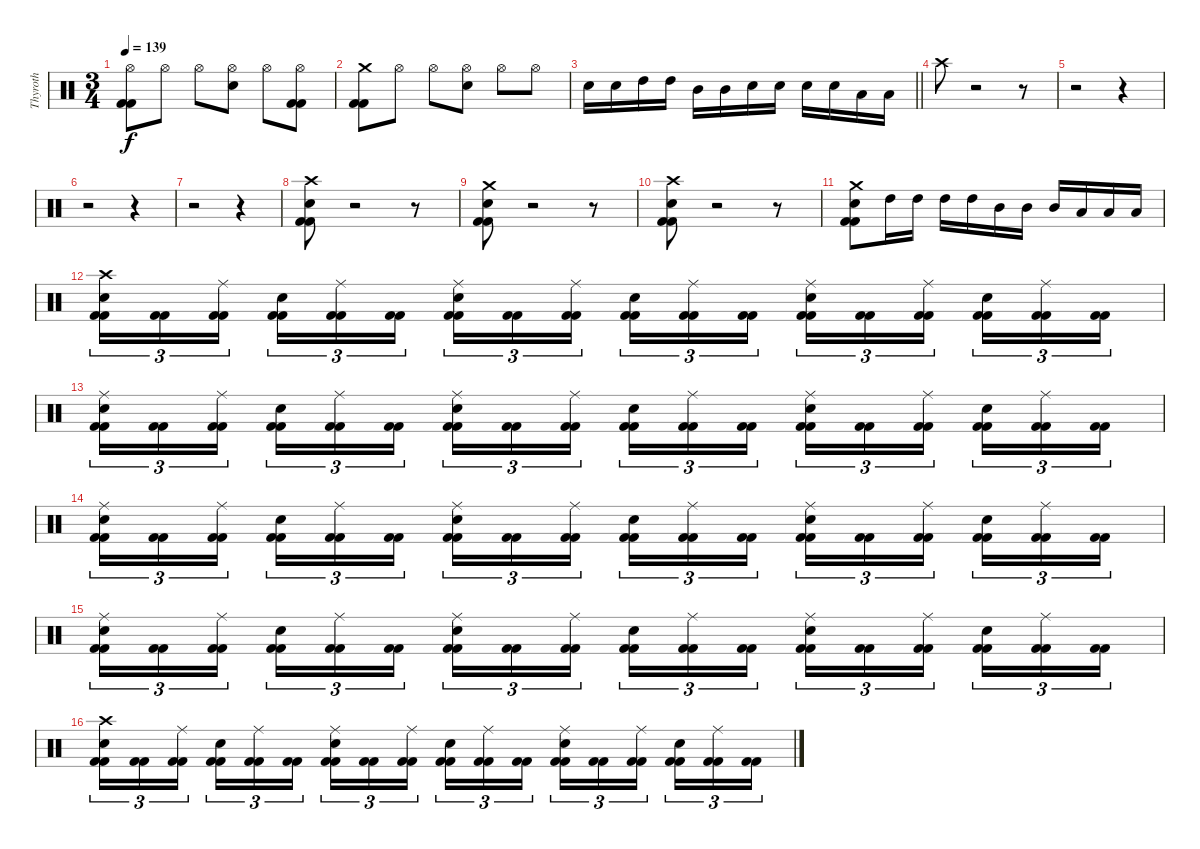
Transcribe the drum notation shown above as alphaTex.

\track ("Thyroth" "Thyroth") {instrument percussion}
\staff {score}
\articulation defaults
\ts (3 4)
\tempo 139
\clef neutral
\ks c
("Kick (hit) 2" "Kick (hit) 2" "Hi-Hat (open)").8{dy f} "Hi-Hat (open)".8 "Hi-Hat (open)".8 ("Snare (hit) 2" "Hi-Hat (open)").8 "Hi-Hat (open)".8 ("Kick (hit) 2" "Kick (hit) 2" "Hi-Hat (open)").8 |
("Kick (hit) 2" "Kick (hit) 2" "Crash medium (hit)").8 "Hi-Hat (open)".8 "Hi-Hat (open)".8 ("Snare (hit) 2" "Hi-Hat (open)").8 "Hi-Hat (open)".8 "Hi-Hat (open)".8 |
\barLineRight lightlight "Snare (hit) 2".16 "Snare (hit) 2".16 "High Tom (hit)".16 "High Tom (hit)".16 "Mid Tom (hit)".16 "Mid Tom (hit)".16 "Snare (hit) 2".16 "Snare (hit) 2".16 "Snare (hit) 2".16 "Snare (hit) 2".16 "Low Tom (hit)".16 "Low Tom (hit)".16
|
"Crash high (hit)".8 r.2 r.8 |
r.2 r.4 |
r.2 r.4 |
r.2 r.4 |
("Kick (hit) 2" "Kick (hit) 2" "Snare (hit) 2" "Crash high (hit)").8 r.2 r.8 |
("Kick (hit) 2" "Kick (hit) 2" "Snare (hit) 2" "Crash medium (hit)").8 r.2 r.8 |
("Kick (hit) 2" "Kick (hit) 2" "Snare (hit) 2" "Crash high (hit)").8 r.2 r.8 |
("Kick (hit) 2" "Kick (hit) 2" "Snare (hit) 2" "Crash medium (hit)").8 "High Tom (hit)".16 "High Tom (hit)".16 "High Tom (hit)".16 "High Tom (hit)".16 "Mid Tom (hit)".16 "Mid Tom (hit)".16 "Mid Tom (hit)".16 "Low Tom (hit)".16 "Low Tom (hit)".16 "Low Tom (hit)".16 |
("Kick (hit) 2" "Kick (hit) 2" "Snare (hit) 2" "Crash high (hit)").16{tu (3 2)} ("Kick (hit) 2" "Kick (hit) 2").16{tu (3 2)} ("Kick (hit) 2" "Kick (hit) 2" "Ride (middle)").16{tu (3 2)} ("Kick (hit) 2" "Kick (hit) 2" "Snare (hit) 2").16{tu (3 2)} ("Kick (hit) 2" "Kick (hit) 2" "Ride (middle)").16{tu (3 2)} ("Kick (hit) 2" "Kick (hit) 2").16{tu (3 2)} ("Kick (hit) 2" "Kick (hit) 2" "Snare (hit) 2" "Ride (middle)").16{tu (3 2)} ("Kick (hit) 2" "Kick (hit) 2").16{tu (3 2)} ("Kick (hit) 2" "Kick (hit) 2" "Ride (middle)").16{tu (3 2)} ("Kick (hit) 2" "Kick (hit) 2" "Snare (hit) 2").16{tu (3 2)} ("Kick (hit) 2" "Kick (hit) 2" "Ride (middle)").16{tu (3 2)} ("Kick (hit) 2" "Kick (hit) 2").16{tu (3 2)} ("Kick (hit) 2" "Kick (hit) 2" "Snare (hit) 2" "Ride (middle)").16{tu (3 2)} ("Kick (hit) 2" "Kick (hit) 2").16{tu (3 2)} ("Kick (hit) 2" "Kick (hit) 2" "Ride (middle)").16{tu (3 2)} ("Kick (hit) 2" "Kick (hit) 2" "Snare (hit) 2").16{tu (3 2)} ("Kick (hit) 2" "Kick (hit) 2" "Ride (middle)").16{tu (3 2)} ("Kick (hit) 2" "Kick (hit) 2").16{tu (3 2)} |
("Kick (hit) 2" "Kick (hit) 2" "Snare (hit) 2" "Ride (middle)").16{tu (3 2)} ("Kick (hit) 2" "Kick (hit) 2").16{tu (3 2)} ("Kick (hit) 2" "Kick (hit) 2" "Ride (middle)").16{tu (3 2)} ("Kick (hit) 2" "Kick (hit) 2" "Snare (hit) 2").16{tu (3 2)} ("Kick (hit) 2" "Kick (hit) 2" "Ride (middle)").16{tu (3 2)} ("Kick (hit) 2" "Kick (hit) 2").16{tu (3 2)} ("Kick (hit) 2" "Kick (hit) 2" "Snare (hit) 2" "Ride (middle)").16{tu (3 2)} ("Kick (hit) 2" "Kick (hit) 2").16{tu (3 2)} ("Kick (hit) 2" "Kick (hit) 2" "Ride (middle)").16{tu (3 2)} ("Kick (hit) 2" "Kick (hit) 2" "Snare (hit) 2").16{tu (3 2)} ("Kick (hit) 2" "Kick (hit) 2" "Ride (middle)").16{tu (3 2)} ("Kick (hit) 2" "Kick (hit) 2").16{tu (3 2)} ("Kick (hit) 2" "Kick (hit) 2" "Snare (hit) 2" "Ride (middle)").16{tu (3 2)} ("Kick (hit) 2" "Kick (hit) 2").16{tu (3 2)} ("Kick (hit) 2" "Kick (hit) 2" "Ride (middle)").16{tu (3 2)} ("Kick (hit) 2" "Kick (hit) 2" "Snare (hit) 2").16{tu (3 2)} ("Kick (hit) 2" "Kick (hit) 2" "Ride (middle)").16{tu (3 2)} ("Kick (hit) 2" "Kick (hit) 2").16{tu (3 2)} |
("Kick (hit) 2" "Kick (hit) 2" "Snare (hit) 2" "Ride (middle)").16{tu (3 2)} ("Kick (hit) 2" "Kick (hit) 2").16{tu (3 2)} ("Kick (hit) 2" "Kick (hit) 2" "Ride (middle)").16{tu (3 2)} ("Kick (hit) 2" "Kick (hit) 2" "Snare (hit) 2").16{tu (3 2)} ("Kick (hit) 2" "Kick (hit) 2" "Ride (middle)").16{tu (3 2)} ("Kick (hit) 2" "Kick (hit) 2").16{tu (3 2)} ("Kick (hit) 2" "Kick (hit) 2" "Snare (hit) 2" "Ride (middle)").16{tu (3 2)} ("Kick (hit) 2" "Kick (hit) 2").16{tu (3 2)} ("Kick (hit) 2" "Kick (hit) 2" "Ride (middle)").16{tu (3 2)} ("Kick (hit) 2" "Kick (hit) 2" "Snare (hit) 2").16{tu (3 2)} ("Kick (hit) 2" "Kick (hit) 2" "Ride (middle)").16{tu (3 2)} ("Kick (hit) 2" "Kick (hit) 2").16{tu (3 2)} ("Kick (hit) 2" "Kick (hit) 2" "Snare (hit) 2" "Ride (middle)").16{tu (3 2)} ("Kick (hit) 2" "Kick (hit) 2").16{tu (3 2)} ("Kick (hit) 2" "Kick (hit) 2" "Ride (middle)").16{tu (3 2)} ("Kick (hit) 2" "Kick (hit) 2" "Snare (hit) 2").16{tu (3 2)} ("Kick (hit) 2" "Kick (hit) 2" "Ride (middle)").16{tu (3 2)} ("Kick (hit) 2" "Kick (hit) 2").16{tu (3 2)} |
("Kick (hit) 2" "Kick (hit) 2" "Snare (hit) 2" "Ride (middle)").16{tu (3 2)} ("Kick (hit) 2" "Kick (hit) 2").16{tu (3 2)} ("Kick (hit) 2" "Kick (hit) 2" "Ride (middle)").16{tu (3 2)} ("Kick (hit) 2" "Kick (hit) 2" "Snare (hit) 2").16{tu (3 2)} ("Kick (hit) 2" "Kick (hit) 2" "Ride (middle)").16{tu (3 2)} ("Kick (hit) 2" "Kick (hit) 2").16{tu (3 2)} ("Kick (hit) 2" "Kick (hit) 2" "Snare (hit) 2" "Ride (middle)").16{tu (3 2)} ("Kick (hit) 2" "Kick (hit) 2").16{tu (3 2)} ("Kick (hit) 2" "Kick (hit) 2" "Ride (middle)").16{tu (3 2)} ("Kick (hit) 2" "Kick (hit) 2" "Snare (hit) 2").16{tu (3 2)} ("Kick (hit) 2" "Kick (hit) 2" "Ride (middle)").16{tu (3 2)} ("Kick (hit) 2" "Kick (hit) 2").16{tu (3 2)} ("Kick (hit) 2" "Kick (hit) 2" "Snare (hit) 2" "Ride (middle)").16{tu (3 2)} ("Kick (hit) 2" "Kick (hit) 2").16{tu (3 2)} ("Kick (hit) 2" "Kick (hit) 2" "Ride (middle)").16{tu (3 2)} ("Kick (hit) 2" "Kick (hit) 2" "Snare (hit) 2").16{tu (3 2)} ("Kick (hit) 2" "Kick (hit) 2" "Ride (middle)").16{tu (3 2)} ("Kick (hit) 2" "Kick (hit) 2").16{tu (3 2)} |
("Kick (hit) 2" "Kick (hit) 2" "Snare (hit) 2" "Crash high (hit)").16{tu (3 2)} ("Kick (hit) 2" "Kick (hit) 2").16{tu (3 2)} ("Kick (hit) 2" "Kick (hit) 2" "Ride (middle)").16{tu (3 2)} ("Kick (hit) 2" "Kick (hit) 2" "Snare (hit) 2").16{tu (3 2)} ("Kick (hit) 2" "Kick (hit) 2" "Ride (middle)").16{tu (3 2)} ("Kick (hit) 2" "Kick (hit) 2").16{tu (3 2)} ("Kick (hit) 2" "Kick (hit) 2" "Snare (hit) 2" "Ride (middle)").16{tu (3 2)} ("Kick (hit) 2" "Kick (hit) 2").16{tu (3 2)} ("Kick (hit) 2" "Kick (hit) 2" "Ride (middle)").16{tu (3 2)} ("Kick (hit) 2" "Kick (hit) 2" "Snare (hit) 2").16{tu (3 2)} ("Kick (hit) 2" "Kick (hit) 2" "Ride (middle)").16{tu (3 2)} ("Kick (hit) 2" "Kick (hit) 2").16{tu (3 2)} ("Kick (hit) 2" "Kick (hit) 2" "Snare (hit) 2" "Ride (middle)").16{tu (3 2)} ("Kick (hit) 2" "Kick (hit) 2").16{tu (3 2)} ("Kick (hit) 2" "Kick (hit) 2" "Ride (middle)").16{tu (3 2)} ("Kick (hit) 2" "Kick (hit) 2" "Snare (hit) 2").16{tu (3 2)} ("Kick (hit) 2" "Kick (hit) 2" "Ride (middle)").16{tu (3 2)} ("Kick (hit) 2" "Kick (hit) 2").16{tu (3 2)}
